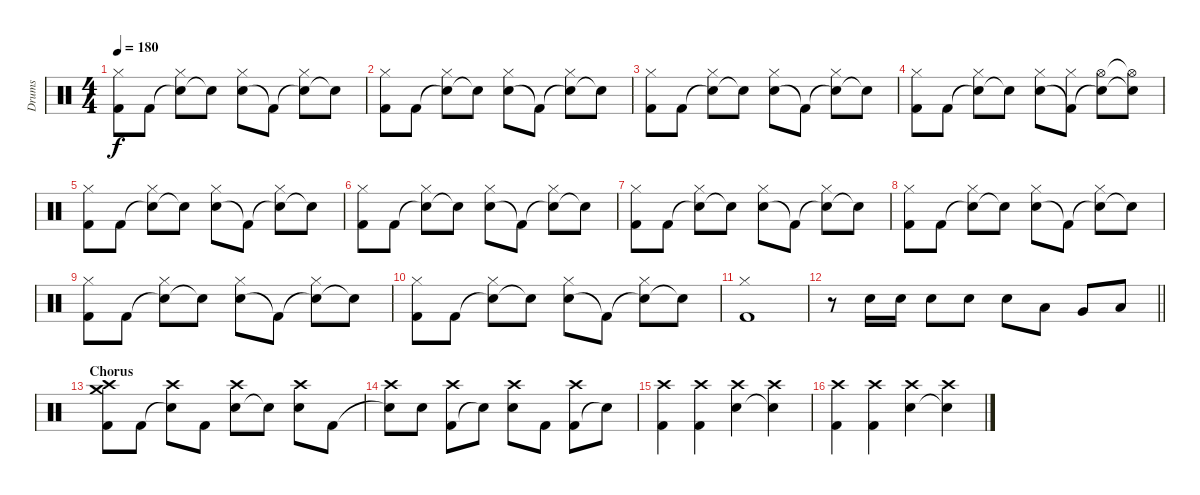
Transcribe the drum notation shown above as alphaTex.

\track ("Drums" "Drums") {instrument percussion}
\staff {score}
\articulation defaults
\ts (4 4)
\tempo 180
\clef neutral
\ks c
("Kick (hit) 2" "Hi-Hat (closed)").8{dy f} "Kick (hit) 2".8 ("Snare (hit)"{t} "Hi-Hat (closed)").8 "Snare (hit)"{t}.8 ("Electric Snare (hit)" "Hi-Hat (closed)").8 "Kick (hit) 2"{t}.8 ("Snare (hit)"{t} "Hi-Hat (closed)").8 "Snare (hit)"{t}.8 |
("Kick (hit) 2" "Hi-Hat (closed)").8 "Kick (hit) 2".8 ("Snare (hit)"{t} "Hi-Hat (closed)").8 "Snare (hit)"{t}.8 ("Electric Snare (hit)" "Hi-Hat (closed)").8 "Kick (hit) 2"{t}.8 ("Snare (hit)"{t} "Hi-Hat (closed)").8 "Snare (hit)"{t}.8 |
("Kick (hit) 2" "Hi-Hat (closed)").8 "Kick (hit) 2".8 ("Snare (hit)"{t} "Hi-Hat (closed)").8 "Snare (hit)"{t}.8 ("Electric Snare (hit)" "Hi-Hat (closed)").8 "Kick (hit) 2"{t}.8 ("Snare (hit)"{t} "Hi-Hat (closed)").8 "Snare (hit)"{t}.8 |
("Kick (hit) 2" "Hi-Hat (closed)").8 "Kick (hit) 2".8 ("Snare (hit)"{t} "Hi-Hat (closed)").8 "Snare (hit)"{t}.8 ("Electric Snare (hit)" "Hi-Hat (closed)").8 ("Kick (hit) 2"{t} "Hi-Hat (closed)").8 ("Snare (hit)"{t} "Hi-Hat (open)").8 ("Snare (hit)"{t} "Hi-Hat (open)"{t}).8 |
("Kick (hit) 2" "Hi-Hat (closed)").8 "Kick (hit) 2".8 ("Snare (hit)"{t} "Hi-Hat (closed)").8 "Snare (hit)"{t}.8 ("Electric Snare (hit)" "Hi-Hat (closed)").8 "Kick (hit) 2"{t}.8 ("Snare (hit)"{t} "Hi-Hat (closed)").8 "Snare (hit)"{t}.8 |
("Kick (hit) 2" "Hi-Hat (closed)").8 "Kick (hit) 2".8 ("Snare (hit)"{t} "Hi-Hat (closed)").8 "Snare (hit)"{t}.8 ("Electric Snare (hit)" "Hi-Hat (closed)").8 "Kick (hit) 2"{t}.8 ("Snare (hit)"{t} "Hi-Hat (closed)").8 "Snare (hit)"{t}.8 |
("Kick (hit) 2" "Hi-Hat (closed)").8 "Kick (hit) 2".8 ("Snare (hit)"{t} "Hi-Hat (closed)").8 "Snare (hit)"{t}.8 ("Electric Snare (hit)" "Hi-Hat (closed)").8 "Kick (hit) 2"{t}.8 ("Snare (hit)"{t} "Hi-Hat (closed)").8 "Snare (hit)"{t}.8 |
("Kick (hit) 2" "Hi-Hat (closed)").8 "Kick (hit) 2".8 ("Snare (hit)"{t} "Hi-Hat (closed)").8 "Snare (hit)"{t}.8 ("Electric Snare (hit)" "Hi-Hat (closed)").8 "Kick (hit) 2"{t}.8 ("Snare (hit)"{t} "Hi-Hat (closed)").8 "Snare (hit)"{t}.8 |
("Kick (hit) 2" "Hi-Hat (closed)").8{volume 0} "Kick (hit) 2".8 ("Snare (hit)"{t} "Hi-Hat (closed)").8 "Snare (hit)"{t}.8 ("Electric Snare (hit)" "Hi-Hat (closed)").8 "Kick (hit) 2"{t}.8 ("Snare (hit)"{t} "Hi-Hat (closed)").8 "Snare (hit)"{t}.8 |
("Kick (hit) 2" "Hi-Hat (closed)").8 "Kick (hit) 2".8 ("Snare (hit)"{t} "Hi-Hat (closed)").8 "Snare (hit)"{t}.8 ("Electric Snare (hit)" "Hi-Hat (closed)").8 "Kick (hit) 2"{t}.8 ("Snare (hit)"{t} "Hi-Hat (closed)").8 "Snare (hit)"{t}.8 |
("Kick (hit) 2" "Hi-Hat (closed)").1 |
\barLineRight lightlight
r.8{volume 13} "Electric Snare (hit)".16 "Electric Snare (hit)".16 "Electric Snare (hit)".8 "Electric Snare (hit)".8 "Electric Snare (hit)".8 "Low Tom (hit)".8 "Very Low Tom (hit)".8 "Low Floor Tom (hit)".8 |
\section ("" "Chorus")
("Kick (hit) 2" "Crash medium (hit)" "Crash high (hit)").8 "Kick (hit) 2".8 ("Snare (hit)"{t} "Crash high (hit)").8 "Kick (hit) 2".8 ("Electric Snare (hit)" "Crash high (hit)").8 "Snare (hit)"{t}.8 ("Electric Snare (hit)" "Crash high (hit)").8 "Kick (hit) 2".8 |
("Snare (hit)"{t} "Crash high (hit)").8 "Electric Snare (hit)".8 ("Kick (hit) 2" "Crash high (hit)").8 "Snare (hit)"{t}.8 ("Electric Snare (hit)" "Crash high (hit)").8 "Kick (hit) 2".8 ("Kick (hit) 2" "Crash high (hit)").8 "Electric Snare (hit)"{t}.8 |
("Kick (hit) 2" "Crash high (hit)").4 ("Kick (hit) 2" "Crash high (hit)").4 ("Electric Snare (hit)" "Crash high (hit)").4 ("Snare (hit)"{t} "Crash high (hit)").4 |
("Kick (hit) 2" "Crash high (hit)").4 ("Kick (hit) 2" "Crash high (hit)").4 ("Electric Snare (hit)" "Crash high (hit)").4 ("Snare (hit)"{t} "Crash high (hit)").4
